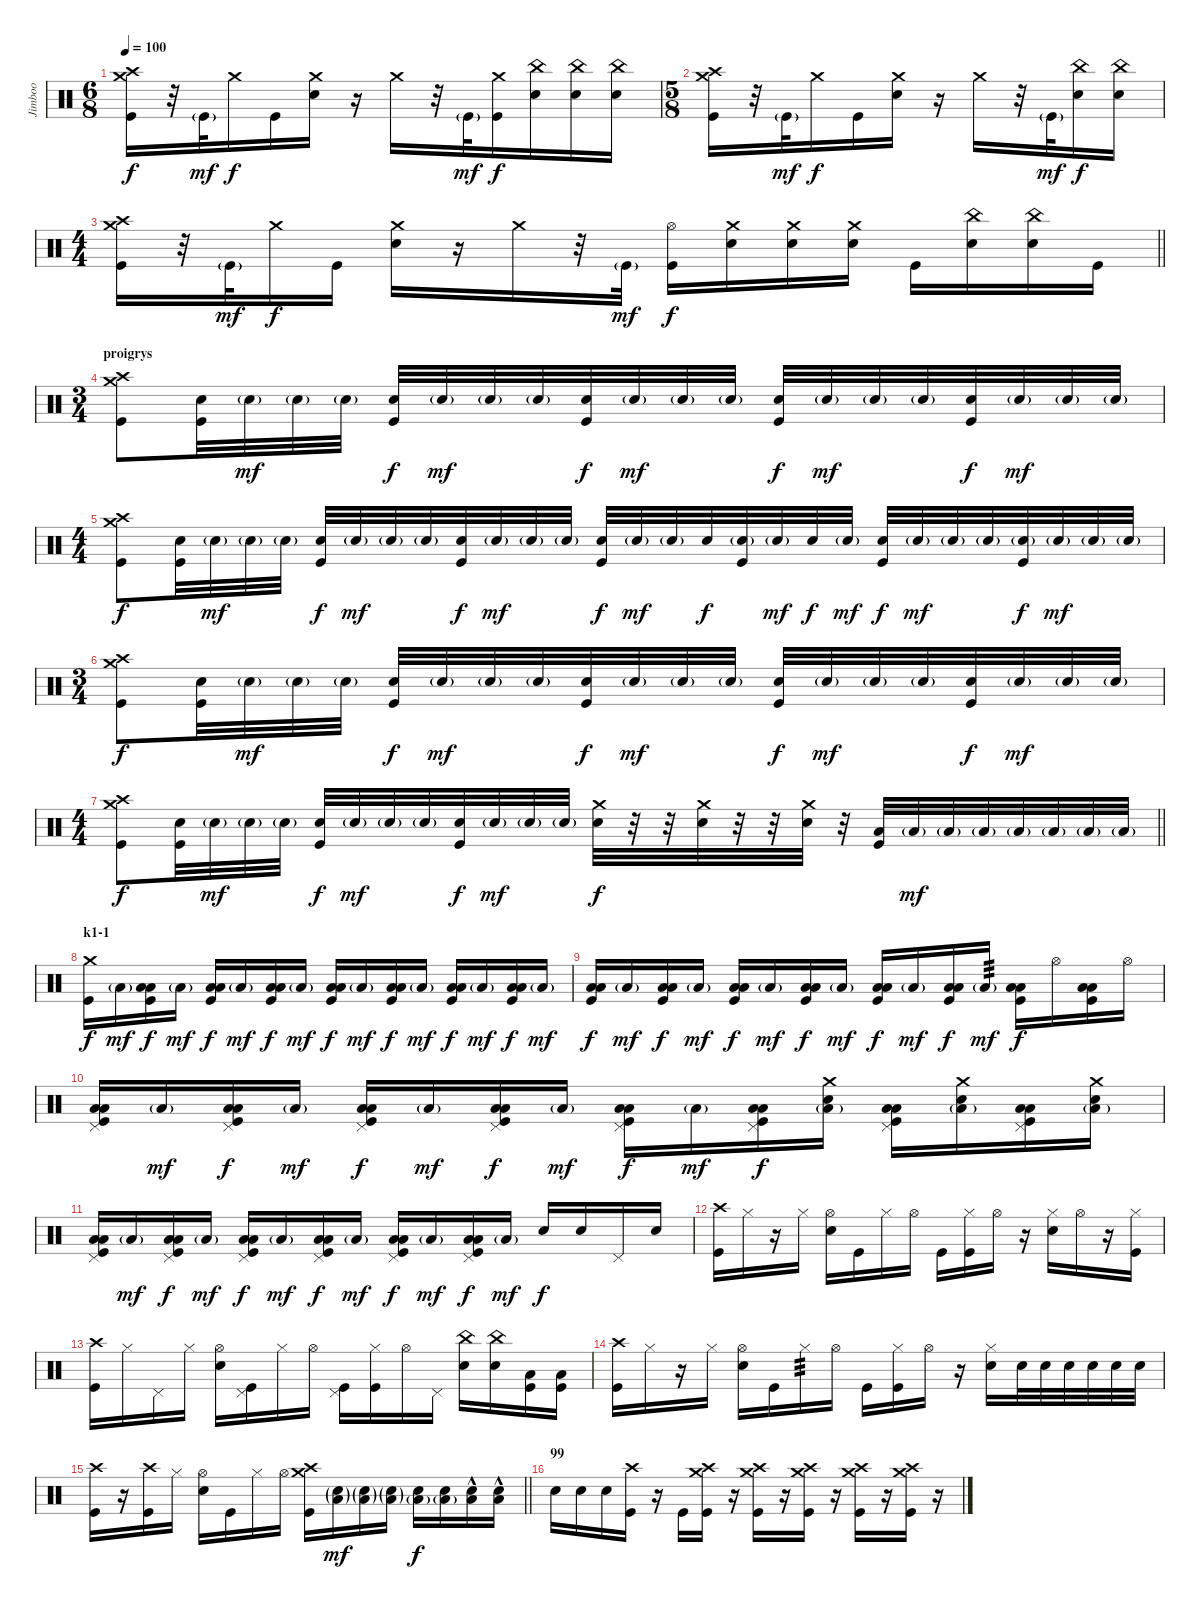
\track ("Jimboo" "Jimboo") {instrument percussion}
\staff
\articulation defaults
\ts (6 8)
\tempo 100
\clef neutral
\ks c
("Kick (hit)" "Crash medium (hit)" "Crash high (hit)").16{dy f} r.32 "Kick (hit)"{g}.32{dy mf} "Crash medium (hit)".16{dy f} "Kick (hit)".16 ("Snare (hit) 2" "Crash medium (hit)").16 r.16 "Crash medium (hit)".16 r.32 "Kick (hit)"{g}.32{dy mf} ("Kick (hit)" "Crash medium (hit)").16{dy f} ("Snare (hit) 2" "China (hit)").16 ("Snare (hit) 2" "China (hit)").16 ("Snare (hit) 2" "China (hit)").16 |
\ts (5 8)
("Kick (hit)" "Crash medium (hit)" "Crash high (hit)").16 r.32 "Kick (hit)"{g}.32{dy mf} "Crash medium (hit)".16{dy f} "Kick (hit)".16 ("Snare (hit) 2" "Crash medium (hit)").16 r.16 "Crash medium (hit)".16 r.32 "Kick (hit)"{g}.32{dy mf} ("Snare (hit) 2" "China (hit)").16{dy f} ("Snare (hit) 2" "China (hit)").16 |
\ts (4 4)
\barLineRight lightlight
("Kick (hit)" "Crash medium (hit)" "Crash high (hit)").16 r.32 "Kick (hit)"{g}.32{dy mf} "Crash medium (hit)".16{dy f} "Kick (hit)".16 ("Snare (hit) 2" "Crash medium (hit)").16 r.16 "Crash medium (hit)".16 r.32 "Kick (hit)"{g}.32{dy mf} ("Kick (hit)" "Hi-Hat (open)").16{dy f} ("Snare (hit) 2" "Crash medium (hit)").16 ("Snare (hit) 2" "Crash medium (hit)").16 ("Snare (hit) 2" "Crash medium (hit)").16 "Kick (hit)".16 ("Snare (hit) 2" "China (hit)").16 ("Snare (hit) 2" "China (hit)").16 "Kick (hit)".16 |
\ts (3 4)
\section ("" "proigrys")
("Crash medium (hit)" "Crash high (hit)" "Kick (hit)").8 ("Snare (hit) 2" "Kick (hit)").32 "Snare (hit) 2"{g}.32{dy mf} "Snare (hit) 2"{g}.32 "Snare (hit) 2"{g}.32 ("Snare (hit) 2" "Kick (hit)").32{dy f} "Snare (hit) 2"{g}.32{dy mf} "Snare (hit) 2"{g}.32 "Snare (hit) 2"{g}.32 ("Snare (hit) 2" "Kick (hit)").32{dy f} "Snare (hit) 2"{g}.32{dy mf} "Snare (hit) 2"{g}.32 "Snare (hit) 2"{g}.32 ("Snare (hit) 2" "Kick (hit)").32{dy f} "Snare (hit) 2"{g}.32{dy mf} "Snare (hit) 2"{g}.32 "Snare (hit) 2"{g}.32 ("Snare (hit) 2" "Kick (hit)").32{dy f} "Snare (hit) 2"{g}.32{dy mf} "Snare (hit) 2"{g}.32 "Snare (hit) 2"{g}.32 |
\ts (4 4)
("Crash medium (hit)" "Crash high (hit)" "Kick (hit)").8{dy f} ("Snare (hit) 2" "Kick (hit)").32 "Snare (hit) 2"{g}.32{dy mf} "Snare (hit) 2"{g}.32 "Snare (hit) 2"{g}.32 ("Snare (hit) 2" "Kick (hit)").32{dy f} "Snare (hit) 2"{g}.32{dy mf} "Snare (hit) 2"{g}.32 "Snare (hit) 2"{g}.32 ("Snare (hit) 2" "Kick (hit)").32{dy f} "Snare (hit) 2"{g}.32{dy mf} "Snare (hit) 2"{g}.32 "Snare (hit) 2"{g}.32 ("Snare (hit) 2" "Kick (hit)").32{dy f} "Snare (hit) 2"{g}.32{dy mf} "Snare (hit) 2"{g}.32 "Snare (hit) 2".32{dy f} ("Snare (hit) 2"{g} "Kick (hit)").32 "Snare (hit) 2"{g}.32{dy mf} "Snare (hit) 2".32{dy f} "Snare (hit) 2"{g}.32{dy mf} ("Snare (hit) 2" "Kick (hit)").32{dy f} "Snare (hit) 2"{g}.32{dy mf} "Snare (hit) 2"{g}.32 "Snare (hit) 2"{g}.32 ("Snare (hit) 2"{g} "Kick (hit)").32{dy f} "Snare (hit) 2"{g}.32{dy mf} "Snare (hit) 2"{g}.32 "Snare (hit) 2"{g}.32 |
\ts (3 4)
("Crash medium (hit)" "Crash high (hit)" "Kick (hit)").8{dy f} ("Snare (hit) 2" "Kick (hit)").32 "Snare (hit) 2"{g}.32{dy mf} "Snare (hit) 2"{g}.32 "Snare (hit) 2"{g}.32 ("Snare (hit) 2" "Kick (hit)").32{dy f} "Snare (hit) 2"{g}.32{dy mf} "Snare (hit) 2"{g}.32 "Snare (hit) 2"{g}.32 ("Snare (hit) 2" "Kick (hit)").32{dy f} "Snare (hit) 2"{g}.32{dy mf} "Snare (hit) 2"{g}.32 "Snare (hit) 2"{g}.32 ("Snare (hit) 2" "Kick (hit)").32{dy f} "Snare (hit) 2"{g}.32{dy mf} "Snare (hit) 2"{g}.32 "Snare (hit) 2"{g}.32 ("Snare (hit) 2" "Kick (hit)").32{dy f} "Snare (hit) 2"{g}.32{dy mf} "Snare (hit) 2"{g}.32 "Snare (hit) 2"{g}.32 |
\ts (4 4)
\barLineRight lightlight
("Crash medium (hit)" "Crash high (hit)" "Kick (hit)").8{dy f} ("Snare (hit) 2" "Kick (hit)").32 "Snare (hit) 2"{g}.32{dy mf} "Snare (hit) 2"{g}.32 "Snare (hit) 2"{g}.32 ("Snare (hit) 2" "Kick (hit)").32{dy f} "Snare (hit) 2"{g}.32{dy mf} "Snare (hit) 2"{g}.32 "Snare (hit) 2"{g}.32 ("Snare (hit) 2" "Kick (hit)").32{dy f} "Snare (hit) 2"{g}.32{dy mf} "Snare (hit) 2"{g}.32 "Snare (hit) 2"{g}.32 ("Snare (hit) 2" "Crash medium (hit)").32{dy f} r.32 r.32 ("Snare (hit) 2" "Crash medium (hit)").32 r.32 r.32 ("Snare (hit) 2" "Crash medium (hit)").32 r.32 ("Low Floor Tom (hit)" "Kick (hit)").32 "Low Floor Tom (hit)"{g}.32{dy mf} "Low Floor Tom (hit)"{g}.32 "Low Floor Tom (hit)"{g}.32 "Low Floor Tom (hit)"{g}.32 "Low Floor Tom (hit)"{g}.32 "Low Floor Tom (hit)"{g}.32 "Low Floor Tom (hit)"{g}.32 |
\section ("" "k1-1")
("Crash medium (hit)" "Kick (hit)").16{dy f} "Low Floor Tom (hit)"{g}.16{dy mf} ("Low Floor Tom (hit)" "Kick (hit)" "Low Tom (hit)").16{dy f} "Low Floor Tom (hit)"{g}.16{dy mf} ("Low Floor Tom (hit)" "Kick (hit)" "Low Tom (hit)").16{dy f} "Low Floor Tom (hit)"{g}.16{dy mf} ("Low Floor Tom (hit)" "Kick (hit)" "Low Tom (hit)").16{dy f} "Low Floor Tom (hit)"{g}.16{dy mf} ("Low Floor Tom (hit)" "Kick (hit)" "Low Tom (hit)").16{dy f} "Low Floor Tom (hit)"{g}.16{dy mf} ("Low Floor Tom (hit)" "Kick (hit)" "Low Tom (hit)").16{dy f} "Low Floor Tom (hit)"{g}.16{dy mf} ("Low Floor Tom (hit)" "Kick (hit)" "Low Tom (hit)").16{dy f} "Low Floor Tom (hit)"{g}.16{dy mf} ("Low Floor Tom (hit)" "Kick (hit)" "Low Tom (hit)").16{dy f} "Low Floor Tom (hit)"{g}.16{dy mf} |
("Low Floor Tom (hit)" "Kick (hit)" "Low Tom (hit)").16{dy f} "Low Floor Tom (hit)"{g}.16{dy mf} ("Low Floor Tom (hit)" "Kick (hit)" "Low Tom (hit)").16{dy f} "Low Floor Tom (hit)"{g}.16{dy mf} ("Low Floor Tom (hit)" "Kick (hit)" "Low Tom (hit)").16{dy f} "Low Floor Tom (hit)"{g}.16{dy mf} ("Low Floor Tom (hit)" "Kick (hit)" "Low Tom (hit)").16{dy f} "Low Floor Tom (hit)"{g}.16{dy mf} ("Low Floor Tom (hit)" "Kick (hit)" "Low Tom (hit)").16{dy f} "Low Floor Tom (hit)"{g}.16{dy mf} ("Low Floor Tom (hit)" "Kick (hit)" "Low Tom (hit)").16{dy f} "Low Floor Tom (hit)"{g}.16{tp 3 dy mf} ("Low Floor Tom (hit)" "Kick (hit)" "Low Tom (hit)").16{dy f} "Hi-Hat (open)".16 ("Low Floor Tom (hit)" "Kick (hit)" "Low Tom (hit)").16 "Hi-Hat (open)".16 |
("Low Floor Tom (hit)" "Kick (hit)" "Low Tom (hit)" "Pedal Hi-Hat (hit)").16 "Low Floor Tom (hit)"{g}.16{dy mf} ("Low Floor Tom (hit)" "Kick (hit)" "Low Tom (hit)" "Pedal Hi-Hat (hit)").16{dy f} "Low Floor Tom (hit)"{g}.16{dy mf} ("Low Floor Tom (hit)" "Kick (hit)" "Low Tom (hit)" "Pedal Hi-Hat (hit)").16{dy f} "Low Floor Tom (hit)"{g}.16{dy mf} ("Low Floor Tom (hit)" "Kick (hit)" "Low Tom (hit)" "Pedal Hi-Hat (hit)").16{dy f} "Low Floor Tom (hit)"{g}.16{dy mf} ("Low Floor Tom (hit)" "Kick (hit)" "Low Tom (hit)" "Pedal Hi-Hat (hit)").16{dy f} "Low Floor Tom (hit)"{g}.16{dy mf} ("Low Floor Tom (hit)" "Kick (hit)" "Low Tom (hit)" "Pedal Hi-Hat (hit)").16{dy f} ("Low Floor Tom (hit)"{g} "Snare (hit) 2" "Crash medium (hit)").16 ("Low Floor Tom (hit)" "Kick (hit)" "Low Tom (hit)" "Pedal Hi-Hat (hit)").16 ("Low Floor Tom (hit)"{g} "Snare (hit) 2" "Crash medium (hit)").16 ("Low Floor Tom (hit)" "Kick (hit)" "Low Tom (hit)" "Pedal Hi-Hat (hit)").16 ("Low Floor Tom (hit)"{g} "Snare (hit) 2" "Crash medium (hit)").16 |
("Low Floor Tom (hit)" "Kick (hit)" "Low Tom (hit)" "Pedal Hi-Hat (hit)").16 "Low Floor Tom (hit)"{g}.16{dy mf} ("Low Floor Tom (hit)" "Kick (hit)" "Low Tom (hit)" "Pedal Hi-Hat (hit)").16{dy f} "Low Floor Tom (hit)"{g}.16{dy mf} ("Low Floor Tom (hit)" "Kick (hit)" "Low Tom (hit)" "Pedal Hi-Hat (hit)").16{dy f} "Low Floor Tom (hit)"{g}.16{dy mf} ("Low Floor Tom (hit)" "Kick (hit)" "Low Tom (hit)" "Pedal Hi-Hat (hit)").16{dy f} "Low Floor Tom (hit)"{g}.16{dy mf} ("Low Floor Tom (hit)" "Kick (hit)" "Low Tom (hit)" "Pedal Hi-Hat (hit)").16{dy f} "Low Floor Tom (hit)"{g}.16{dy mf} ("Low Floor Tom (hit)" "Kick (hit)" "Low Tom (hit)" "Pedal Hi-Hat (hit)").16{dy f} "Low Floor Tom (hit)"{g}.16{dy mf} "Snare (hit) 2".16{dy f} "Snare (hit) 2".16 "Pedal Hi-Hat (hit)".16 "Snare (hit) 2".16 |
("Crash high (hit)" "Kick (hit)").16 "Hi-Hat (closed)".16 r.16 "Hi-Hat (closed)".16 ("Hi-Hat (open)" "Snare (hit) 2").16 "Kick (hit)".16 "Hi-Hat (closed)".16 "Hi-Hat (open)".16 "Kick (hit)".16 ("Hi-Hat (closed)" "Kick (hit)").16 "Hi-Hat (open)".16 r.16 ("Hi-Hat (closed)" "Snare (hit) 2").16 "Hi-Hat (open)".16 r.16 ("Hi-Hat (closed)" "Kick (hit)").16 |
("Crash high (hit)" "Kick (hit)").16 "Hi-Hat (closed)".16 "Pedal Hi-Hat (hit)".16 "Hi-Hat (closed)".16 ("Hi-Hat (open)" "Snare (hit) 2").16 ("Kick (hit)" "Pedal Hi-Hat (hit)").16 "Hi-Hat (closed)".16 "Hi-Hat (open)".16 ("Kick (hit)" "Pedal Hi-Hat (hit)").16 ("Hi-Hat (closed)" "Kick (hit)").16 "Hi-Hat (open)".16 "Pedal Hi-Hat (hit)".16 ("China (hit)" "Snare (hit) 2").16 ("China (hit)" "Snare (hit) 2").16 ("Low Tom (hit)" "Kick (hit)").16 ("Low Floor Tom (hit)" "Kick (hit)").16 |
("Crash high (hit)" "Kick (hit)").16 "Hi-Hat (closed)".16 r.16 "Hi-Hat (closed)".16 ("Hi-Hat (open)" "Snare (hit) 2").16 "Kick (hit)".16 "Hi-Hat (closed)".16{tp 3} "Hi-Hat (open)".16 "Kick (hit)".16 ("Hi-Hat (closed)" "Kick (hit)").16 "Hi-Hat (open)".16 r.16 ("Hi-Hat (closed)" "Snare (hit) 2").16 "Snare (hit) 2".32 "Snare (hit) 2".32 "Snare (hit) 2".32 "Snare (hit) 2".32 "Snare (hit) 2".32 "Snare (hit) 2".32 |
\barLineRight lightlight
("Crash high (hit)" "Kick (hit)").16 r.16 ("Kick (hit)" "Crash high (hit)").16 "Hi-Hat (closed)".16 ("Hi-Hat (open)" "Snare (hit) 2").16 "Kick (hit)".16 "Hi-Hat (closed)".16 "Hi-Hat (open)".16 ("Kick (hit)" "Crash medium (hit)" "Crash high (hit)").16 ("Low Floor Tom (hit)"{g} "Snare (hit) 2"{g}).16{dy mf} ("Low Floor Tom (hit)"{g} "Snare (hit) 2"{g}).16 ("Low Floor Tom (hit)"{g} "Snare (hit) 2"{g}).16 ("Low Floor Tom (hit)"{g} "Snare (hit) 2").16{dy f} ("Low Floor Tom (hit)"{g} "Snare (hit) 2").16 ("Low Floor Tom (hit)" "Snare (hit) 2"{hac}).16 ("Low Floor Tom (hit)"{hac} "Snare (hit) 2"{hac}).16 |
\section ("" "99")
"Snare (hit) 2".16 "Snare (hit) 2".16 "Snare (hit) 2".16 ("Kick (hit)" "Crash high (hit)").16 r.16 "Kick (hit)".16 ("Kick (hit)" "Crash medium (hit)" "Crash high (hit)").16 r.16 ("Kick (hit)" "Crash medium (hit)" "Crash high (hit)").16 r.16 ("Kick (hit)" "Crash medium (hit)" "Crash high (hit)").16 r.16 ("Kick (hit)" "Crash medium (hit)" "Crash high (hit)").16 r.16 ("Kick (hit)" "Crash medium (hit)" "Crash high (hit)").16 r.16
